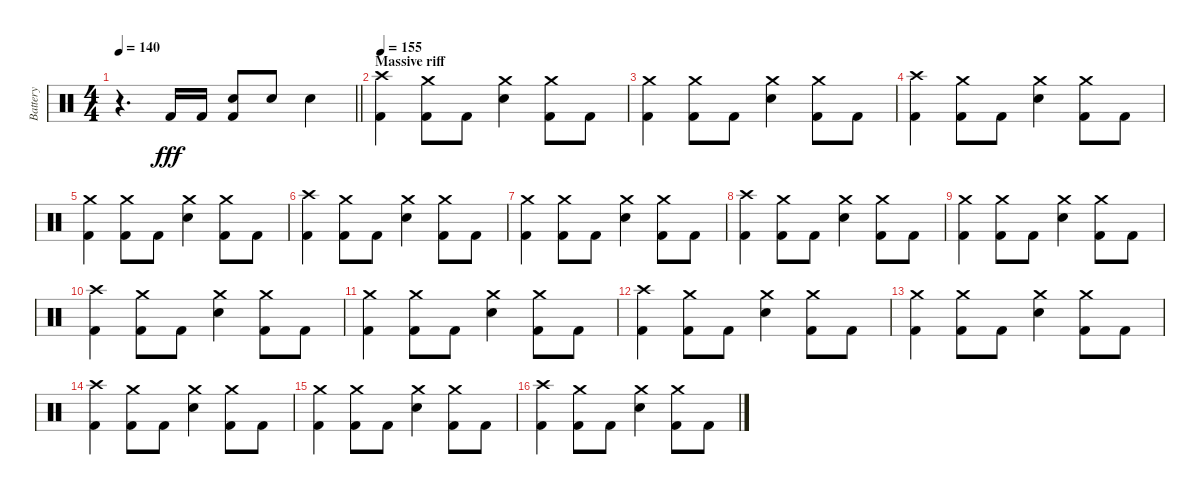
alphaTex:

\track ("Battery" "Battery") {instrument percussion}
\staff {score}
\articulation defaults
\ts (4 4)
\tempo 140
\clef neutral
\barLineRight lightlight
\ks c
r.4{d dy fff} "Kick (hit) 2".16 "Kick (hit) 2".16 ("Electric Snare (hit)" "Kick (hit) 2").8 "Electric Snare (hit)".8 "Electric Snare (hit)".4 |
\section ("" "Massive riff")
\tempo 155
("Crash high (hit)" "Kick (hit) 2").4 ("Crash medium (hit)" "Kick (hit) 2").8 "Kick (hit) 2".8 ("Crash medium (hit)" "Electric Snare (hit)").4 ("Crash medium (hit)" "Kick (hit) 2").8 "Kick (hit) 2".8 |
("Crash medium (hit)" "Kick (hit) 2").4 ("Crash medium (hit)" "Kick (hit) 2").8 "Kick (hit) 2".8 ("Crash medium (hit)" "Electric Snare (hit)").4 ("Crash medium (hit)" "Kick (hit) 2").8 "Kick (hit) 2".8 |
("Crash high (hit)" "Kick (hit) 2").4 ("Crash medium (hit)" "Kick (hit) 2").8 "Kick (hit) 2".8 ("Crash medium (hit)" "Electric Snare (hit)").4 ("Crash medium (hit)" "Kick (hit) 2").8 "Kick (hit) 2".8 |
("Crash medium (hit)" "Kick (hit) 2").4 ("Crash medium (hit)" "Kick (hit) 2").8 "Kick (hit) 2".8 ("Crash medium (hit)" "Electric Snare (hit)").4 ("Crash medium (hit)" "Kick (hit) 2").8 "Kick (hit) 2".8 |
("Crash high (hit)" "Kick (hit) 2").4 ("Crash medium (hit)" "Kick (hit) 2").8 "Kick (hit) 2".8 ("Crash medium (hit)" "Electric Snare (hit)").4 ("Crash medium (hit)" "Kick (hit) 2").8 "Kick (hit) 2".8 |
("Crash medium (hit)" "Kick (hit) 2").4 ("Crash medium (hit)" "Kick (hit) 2").8 "Kick (hit) 2".8 ("Crash medium (hit)" "Electric Snare (hit)").4 ("Crash medium (hit)" "Kick (hit) 2").8 "Kick (hit) 2".8 |
("Crash high (hit)" "Kick (hit) 2").4 ("Crash medium (hit)" "Kick (hit) 2").8 "Kick (hit) 2".8 ("Crash medium (hit)" "Electric Snare (hit)").4 ("Crash medium (hit)" "Kick (hit) 2").8 "Kick (hit) 2".8 |
("Crash medium (hit)" "Kick (hit) 2").4 ("Crash medium (hit)" "Kick (hit) 2").8 "Kick (hit) 2".8 ("Crash medium (hit)" "Electric Snare (hit)").4 ("Crash medium (hit)" "Kick (hit) 2").8 "Kick (hit) 2".8 |
("Crash high (hit)" "Kick (hit) 2").4 ("Crash medium (hit)" "Kick (hit) 2").8 "Kick (hit) 2".8 ("Crash medium (hit)" "Electric Snare (hit)").4 ("Crash medium (hit)" "Kick (hit) 2").8 "Kick (hit) 2".8 |
("Crash medium (hit)" "Kick (hit) 2").4 ("Crash medium (hit)" "Kick (hit) 2").8 "Kick (hit) 2".8 ("Crash medium (hit)" "Electric Snare (hit)").4 ("Crash medium (hit)" "Kick (hit) 2").8 "Kick (hit) 2".8 |
("Crash high (hit)" "Kick (hit) 2").4 ("Crash medium (hit)" "Kick (hit) 2").8 "Kick (hit) 2".8 ("Crash medium (hit)" "Electric Snare (hit)").4 ("Crash medium (hit)" "Kick (hit) 2").8 "Kick (hit) 2".8 |
("Crash medium (hit)" "Kick (hit) 2").4 ("Crash medium (hit)" "Kick (hit) 2").8 "Kick (hit) 2".8 ("Crash medium (hit)" "Electric Snare (hit)").4 ("Crash medium (hit)" "Kick (hit) 2").8 "Kick (hit) 2".8 |
("Crash high (hit)" "Kick (hit) 2").4 ("Crash medium (hit)" "Kick (hit) 2").8 "Kick (hit) 2".8 ("Crash medium (hit)" "Electric Snare (hit)").4 ("Crash medium (hit)" "Kick (hit) 2").8 "Kick (hit) 2".8 |
("Crash medium (hit)" "Kick (hit) 2").4 ("Crash medium (hit)" "Kick (hit) 2").8 "Kick (hit) 2".8 ("Crash medium (hit)" "Electric Snare (hit)").4 ("Crash medium (hit)" "Kick (hit) 2").8 "Kick (hit) 2".8 |
("Crash high (hit)" "Kick (hit) 2").4 ("Crash medium (hit)" "Kick (hit) 2").8 "Kick (hit) 2".8 ("Crash medium (hit)" "Electric Snare (hit)").4 ("Crash medium (hit)" "Kick (hit) 2").8 "Kick (hit) 2".8
